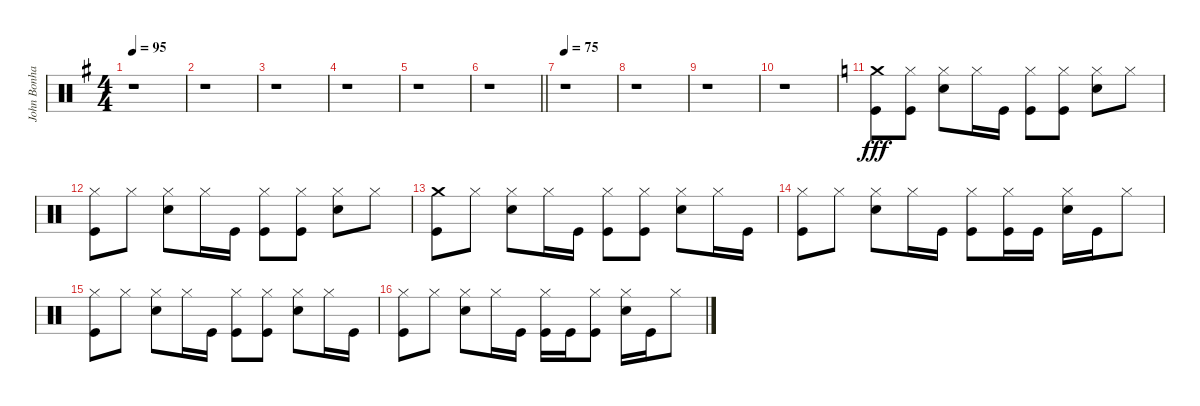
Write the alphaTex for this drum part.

\track ("John Bonham (Bateria)" "John Bonha") {instrument percussion}
\staff {score}
\articulation defaults
\ts (4 4)
\tempo 95
\clef neutral
\ks g
r.1{dy fff} |
r.1 |
r.1 |
r.1 |
r.1 |
\barLineRight lightlight
r.1 |
\tempo 75
r.1 |
r.1 |
r.1 |
r.1 |
\ks c
("Crash medium (hit)" "Kick (hit)").8 ("Hi-Hat (closed)" "Kick (hit)").8 ("Hi-Hat (closed)" "Snare (hit) 2").8 "Hi-Hat (closed)".16 "Kick (hit)".16 ("Hi-Hat (closed)" "Kick (hit)").8 ("Hi-Hat (closed)" "Kick (hit)").8 ("Hi-Hat (closed)" "Snare (hit) 2").8 "Hi-Hat (closed)".8 |
("Hi-Hat (closed)" "Kick (hit)").8 "Hi-Hat (closed)".8 ("Hi-Hat (closed)" "Snare (hit) 2").8 "Hi-Hat (closed)".16 "Kick (hit)".16 ("Hi-Hat (closed)" "Kick (hit)").8 ("Hi-Hat (closed)" "Kick (hit)").8 ("Hi-Hat (closed)" "Snare (hit) 2").8 "Hi-Hat (closed)".8 |
("Crash medium (hit)" "Kick (hit)").8 "Hi-Hat (closed)".8 ("Hi-Hat (closed)" "Snare (hit) 2").8 "Hi-Hat (closed)".16 "Kick (hit)".16 ("Hi-Hat (closed)" "Kick (hit)").8 ("Hi-Hat (closed)" "Kick (hit)").8 ("Hi-Hat (closed)" "Snare (hit) 2").8 "Hi-Hat (closed)".16 "Kick (hit)".16 |
("Hi-Hat (closed)" "Kick (hit)").8 "Hi-Hat (closed)".8 ("Hi-Hat (closed)" "Snare (hit) 2").8 "Hi-Hat (closed)".16 "Kick (hit)".16 ("Hi-Hat (closed)" "Kick (hit)").8 ("Hi-Hat (closed)" "Kick (hit)").16 "Kick (hit)".16 ("Hi-Hat (closed)" "Snare (hit) 2").16 "Kick (hit)".16 "Hi-Hat (closed)".8 |
("Hi-Hat (closed)" "Kick (hit)").8 "Hi-Hat (closed)".8 ("Hi-Hat (closed)" "Snare (hit) 2").8 "Hi-Hat (closed)".16 "Kick (hit)".16 ("Hi-Hat (closed)" "Kick (hit)").8 ("Hi-Hat (closed)" "Kick (hit)").8 ("Hi-Hat (closed)" "Snare (hit) 2").8 "Hi-Hat (closed)".16 "Kick (hit)".16 |
("Hi-Hat (closed)" "Kick (hit)").8 "Hi-Hat (closed)".8 ("Hi-Hat (closed)" "Snare (hit) 2").8 "Hi-Hat (closed)".16 "Kick (hit)".16 ("Hi-Hat (closed)" "Kick (hit)").16 "Kick (hit)".16 ("Hi-Hat (closed)" "Kick (hit)").8 ("Hi-Hat (closed)" "Snare (hit) 2").16 "Kick (hit)".16 "Hi-Hat (closed)".8
